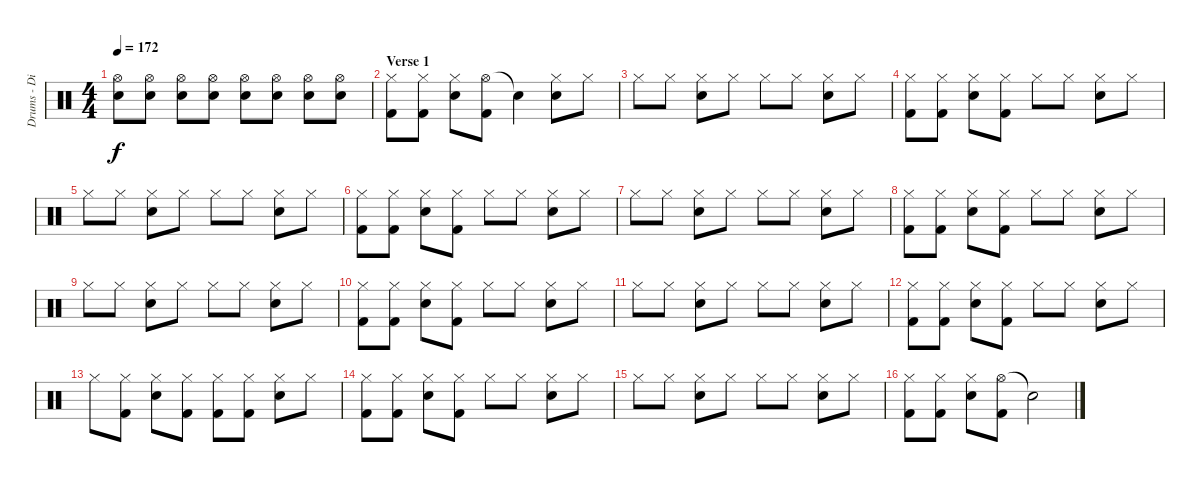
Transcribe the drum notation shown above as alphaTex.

\track ("Drums - Dino Campanella" "Drums - Di") {instrument percussion}
\staff {score}
\articulation defaults
\ts (4 4)
\tempo 172
\clef neutral
\ks c
("Hi-Hat (open)" "Electric Snare (hit)").8{dy f} ("Hi-Hat (open)" "Electric Snare (hit)").8 ("Hi-Hat (open)" "Electric Snare (hit)").8 ("Hi-Hat (open)" "Electric Snare (hit)").8 ("Hi-Hat (open)" "Electric Snare (hit)").8 ("Hi-Hat (open)" "Electric Snare (hit)").8 ("Hi-Hat (open)" "Electric Snare (hit)").8 ("Hi-Hat (open)" "Electric Snare (hit)").8 |
\section ("" "Verse 1")
("Hi-Hat (closed)" "Kick (hit) 2").8 ("Hi-Hat (closed)" "Kick (hit) 2").8 ("Hi-Hat (closed)" "Electric Snare (hit)").8 ("Hi-Hat (open)" "Kick (hit) 2").8 "Snare (hit)"{t}.4 ("Hi-Hat (closed)" "Electric Snare (hit)").8 "Hi-Hat (closed)".8 |
"Hi-Hat (closed)".8 "Hi-Hat (closed)".8 ("Hi-Hat (closed)" "Electric Snare (hit)").8 "Hi-Hat (closed)".8 "Hi-Hat (closed)".8 "Hi-Hat (closed)".8 ("Hi-Hat (closed)" "Electric Snare (hit)").8 "Hi-Hat (closed)".8 |
("Hi-Hat (closed)" "Kick (hit) 2").8 ("Hi-Hat (closed)" "Kick (hit) 2").8 ("Hi-Hat (closed)" "Electric Snare (hit)").8 ("Hi-Hat (closed)" "Kick (hit) 2").8 "Hi-Hat (closed)".8 "Hi-Hat (closed)".8 ("Hi-Hat (closed)" "Electric Snare (hit)").8 "Hi-Hat (closed)".8 |
"Hi-Hat (closed)".8 "Hi-Hat (closed)".8 ("Hi-Hat (closed)" "Electric Snare (hit)").8 "Hi-Hat (closed)".8 "Hi-Hat (closed)".8 "Hi-Hat (closed)".8 ("Hi-Hat (closed)" "Electric Snare (hit)").8 "Hi-Hat (closed)".8 |
("Hi-Hat (closed)" "Kick (hit) 2").8 ("Hi-Hat (closed)" "Kick (hit) 2").8 ("Hi-Hat (closed)" "Electric Snare (hit)").8 ("Hi-Hat (closed)" "Kick (hit) 2").8 "Hi-Hat (closed)".8 "Hi-Hat (closed)".8 ("Hi-Hat (closed)" "Electric Snare (hit)").8 "Hi-Hat (closed)".8 |
"Hi-Hat (closed)".8 "Hi-Hat (closed)".8 ("Hi-Hat (closed)" "Electric Snare (hit)").8 "Hi-Hat (closed)".8 "Hi-Hat (closed)".8 "Hi-Hat (closed)".8 ("Hi-Hat (closed)" "Electric Snare (hit)").8 "Hi-Hat (closed)".8 |
("Hi-Hat (closed)" "Kick (hit) 2").8 ("Hi-Hat (closed)" "Kick (hit) 2").8 ("Hi-Hat (closed)" "Electric Snare (hit)").8 ("Hi-Hat (closed)" "Kick (hit) 2").8 "Hi-Hat (closed)".8 "Hi-Hat (closed)".8 ("Hi-Hat (closed)" "Electric Snare (hit)").8 "Hi-Hat (closed)".8 |
"Hi-Hat (closed)".8 "Hi-Hat (closed)".8 ("Hi-Hat (closed)" "Electric Snare (hit)").8 "Hi-Hat (closed)".8 "Hi-Hat (closed)".8 "Hi-Hat (closed)".8 ("Hi-Hat (closed)" "Electric Snare (hit)").8 "Hi-Hat (closed)".8 |
("Hi-Hat (closed)" "Kick (hit) 2").8 ("Hi-Hat (closed)" "Kick (hit) 2").8 ("Hi-Hat (closed)" "Electric Snare (hit)").8 ("Hi-Hat (closed)" "Kick (hit) 2").8 "Hi-Hat (closed)".8 "Hi-Hat (closed)".8 ("Hi-Hat (closed)" "Electric Snare (hit)").8 "Hi-Hat (closed)".8 |
"Hi-Hat (closed)".8 "Hi-Hat (closed)".8 ("Hi-Hat (closed)" "Electric Snare (hit)").8 "Hi-Hat (closed)".8 "Hi-Hat (closed)".8 "Hi-Hat (closed)".8 ("Hi-Hat (closed)" "Electric Snare (hit)").8 "Hi-Hat (closed)".8 |
("Hi-Hat (closed)" "Kick (hit) 2").8 ("Hi-Hat (closed)" "Kick (hit) 2").8 ("Hi-Hat (closed)" "Electric Snare (hit)").8 ("Hi-Hat (closed)" "Kick (hit) 2").8 "Hi-Hat (closed)".8 "Hi-Hat (closed)".8 ("Hi-Hat (closed)" "Electric Snare (hit)").8 "Hi-Hat (closed)".8 |
"Hi-Hat (closed)".8 ("Hi-Hat (closed)" "Kick (hit) 2").8 ("Hi-Hat (closed)" "Electric Snare (hit)").8 ("Hi-Hat (closed)" "Kick (hit) 2").8 ("Hi-Hat (closed)" "Kick (hit) 2").8 ("Hi-Hat (closed)" "Kick (hit) 2").8 ("Hi-Hat (closed)" "Electric Snare (hit)").8 "Hi-Hat (closed)".8 |
("Hi-Hat (closed)" "Kick (hit) 2").8 ("Hi-Hat (closed)" "Kick (hit) 2").8 ("Hi-Hat (closed)" "Electric Snare (hit)").8 ("Hi-Hat (closed)" "Kick (hit) 2").8 "Hi-Hat (closed)".8 "Hi-Hat (closed)".8 ("Hi-Hat (closed)" "Electric Snare (hit)").8 "Hi-Hat (closed)".8 |
"Hi-Hat (closed)".8 "Hi-Hat (closed)".8 ("Hi-Hat (closed)" "Electric Snare (hit)").8 "Hi-Hat (closed)".8 "Hi-Hat (closed)".8 "Hi-Hat (closed)".8 ("Hi-Hat (closed)" "Electric Snare (hit)").8 "Hi-Hat (closed)".8 |
("Hi-Hat (closed)" "Kick (hit) 2").8 ("Hi-Hat (closed)" "Kick (hit) 2").8 ("Hi-Hat (closed)" "Electric Snare (hit)").8 ("Hi-Hat (open)" "Kick (hit) 2").8 "Snare (hit)"{t}.2
